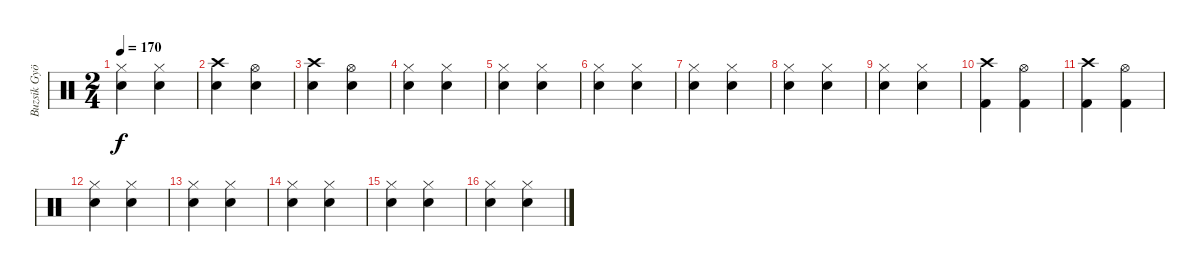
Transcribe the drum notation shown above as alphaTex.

\track ("Buzsik György (dob)" "Buzsik Gyö") {instrument percussion}
\staff {score}
\articulation defaults
\ts (2 4)
\tempo 170
\clef neutral
\ks c
("Hi-Hat (closed)" "Snare (hit) 2").4{dy f} ("Hi-Hat (closed)" "Snare (hit) 2").4 |
("Crash high (hit)" "Snare (hit) 2").4 ("Hi-Hat (open)" "Snare (hit) 2").4 |
("Crash high (hit)" "Snare (hit) 2").4 ("Hi-Hat (open)" "Snare (hit) 2").4 |
("Hi-Hat (closed)" "Snare (hit) 2").4 ("Hi-Hat (closed)" "Snare (hit) 2").4 |
("Hi-Hat (closed)" "Snare (hit) 2").4 ("Hi-Hat (closed)" "Snare (hit) 2").4 |
("Hi-Hat (closed)" "Snare (hit) 2").4 ("Hi-Hat (closed)" "Snare (hit) 2").4 |
("Hi-Hat (closed)" "Snare (hit) 2").4 ("Hi-Hat (closed)" "Snare (hit) 2").4 |
("Hi-Hat (closed)" "Snare (hit) 2").4 ("Hi-Hat (closed)" "Snare (hit) 2").4 |
("Hi-Hat (closed)" "Snare (hit) 2").4 ("Hi-Hat (closed)" "Snare (hit) 2").4 |
("Crash high (hit)" "Kick (hit) 2").4 ("Hi-Hat (open)" "Kick (hit) 2").4 |
("Crash high (hit)" "Kick (hit) 2").4 ("Hi-Hat (open)" "Kick (hit) 2").4 |
("Hi-Hat (closed)" "Snare (hit) 2").4 ("Hi-Hat (closed)" "Snare (hit) 2").4 |
("Hi-Hat (closed)" "Snare (hit) 2").4 ("Hi-Hat (closed)" "Snare (hit) 2").4 |
("Hi-Hat (closed)" "Snare (hit) 2").4 ("Hi-Hat (closed)" "Snare (hit) 2").4 |
("Hi-Hat (closed)" "Snare (hit) 2").4 ("Hi-Hat (closed)" "Snare (hit) 2").4 |
("Hi-Hat (closed)" "Snare (hit) 2").4 ("Hi-Hat (closed)" "Snare (hit) 2").4
